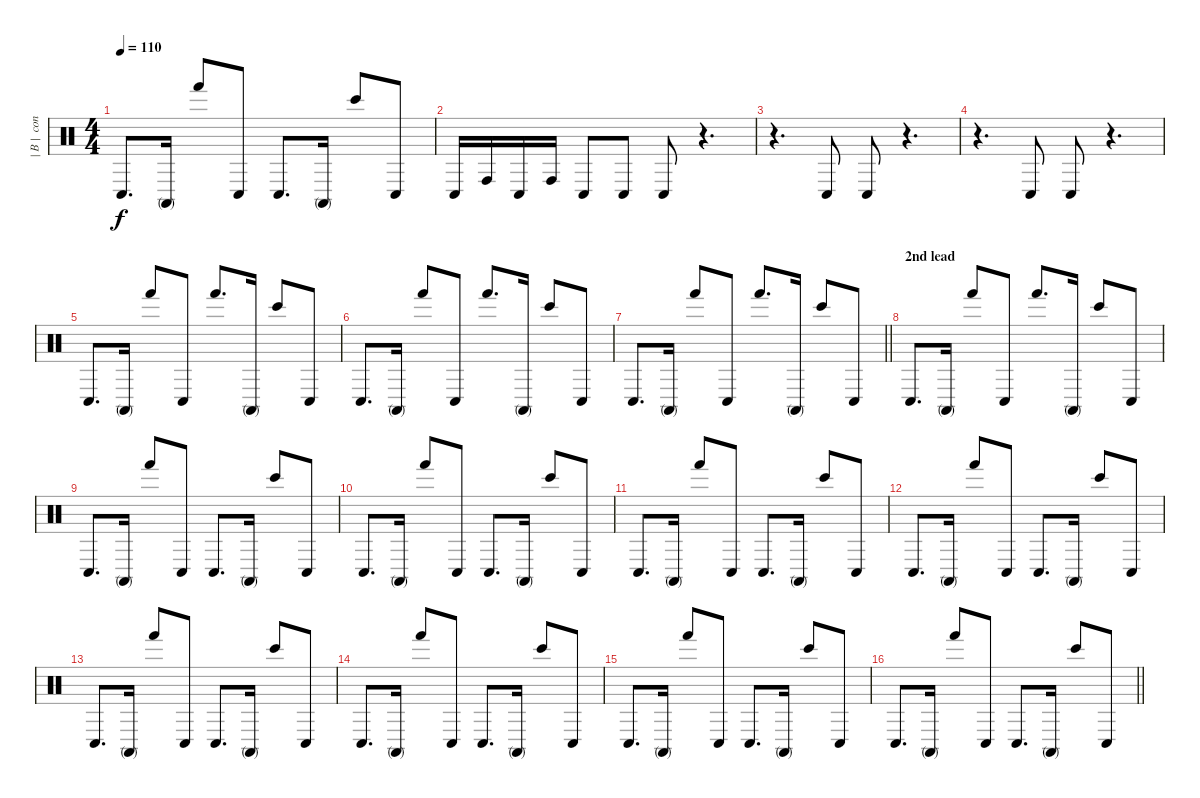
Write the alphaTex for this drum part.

\track ("| B |  conga" "| B |  con") {instrument percussion}
\staff {score}
\articulation defaults
\ts (4 4)
\tempo 110
\clef neutral
\ks c "Conga low (hit)".8{d dy f} "Conga high (mute)".16 "Hand (hit)".8 "Conga low (hit)".8 "Conga low (hit)".8{d} "Conga high (mute)".16 "Bongo High (hit)".8 "Conga low (hit)".8
|
"Conga low (hit)".16 "Conga high (hit)".16 "Conga low (hit)".16 "Conga high (hit)".16 "Conga low (hit)".8 "Conga low (hit)".8 "Conga low (hit)".8 r.4{d} |
r.4{d} "Conga low (hit)".8 "Conga low (hit)".8 r.4{d} |
r.4{d} "Conga low (hit)".8 "Conga low (hit)".8 r.4{d} |
"Conga low (hit)".8{d} "Conga high (mute)".16 "Hand (hit)".8 "Conga low (hit)".8 "Hand (hit)".8{d} "Conga high (mute)".16 "Bongo High (hit)".8 "Conga low (hit)".8 |
"Conga low (hit)".8{d} "Conga high (mute)".16 "Hand (hit)".8 "Conga low (hit)".8 "Hand (hit)".8{d} "Conga high (mute)".16 "Bongo High (hit)".8 "Conga low (hit)".8 |
\barLineRight lightlight "Conga low (hit)".8{d} "Conga high (mute)".16 "Hand (hit)".8 "Conga low (hit)".8 "Hand (hit)".8{d} "Conga high (mute)".16 "Bongo High (hit)".8 "Conga low (hit)".8
|
\section ("" "2nd lead")
"Conga low (hit)".8{d} "Conga high (mute)".16 "Hand (hit)".8 "Conga low (hit)".8 "Hand (hit)".8{d} "Conga high (mute)".16 "Bongo High (hit)".8 "Conga low (hit)".8 |
"Conga low (hit)".8{d} "Conga high (mute)".16 "Hand (hit)".8 "Conga low (hit)".8 "Conga low (hit)".8{d} "Conga high (mute)".16 "Bongo High (hit)".8 "Conga low (hit)".8 |
"Conga low (hit)".8{d} "Conga high (mute)".16 "Hand (hit)".8 "Conga low (hit)".8 "Conga low (hit)".8{d} "Conga high (mute)".16 "Bongo High (hit)".8 "Conga low (hit)".8 |
"Conga low (hit)".8{d} "Conga high (mute)".16 "Hand (hit)".8 "Conga low (hit)".8 "Conga low (hit)".8{d} "Conga high (mute)".16 "Bongo High (hit)".8 "Conga low (hit)".8 |
"Conga low (hit)".8{d} "Conga high (mute)".16 "Hand (hit)".8 "Conga low (hit)".8 "Conga low (hit)".8{d} "Conga high (mute)".16 "Bongo High (hit)".8 "Conga low (hit)".8 |
"Conga low (hit)".8{d} "Conga high (mute)".16 "Hand (hit)".8 "Conga low (hit)".8 "Conga low (hit)".8{d} "Conga high (mute)".16 "Bongo High (hit)".8 "Conga low (hit)".8 |
"Conga low (hit)".8{d} "Conga high (mute)".16 "Hand (hit)".8 "Conga low (hit)".8 "Conga low (hit)".8{d} "Conga high (mute)".16 "Bongo High (hit)".8 "Conga low (hit)".8 |
"Conga low (hit)".8{d} "Conga high (mute)".16 "Hand (hit)".8 "Conga low (hit)".8 "Conga low (hit)".8{d} "Conga high (mute)".16 "Bongo High (hit)".8 "Conga low (hit)".8 |
\barLineRight lightlight "Conga low (hit)".8{d} "Conga high (mute)".16 "Hand (hit)".8 "Conga low (hit)".8 "Conga low (hit)".8{d} "Conga high (mute)".16 "Bongo High (hit)".8 "Conga low (hit)".8
